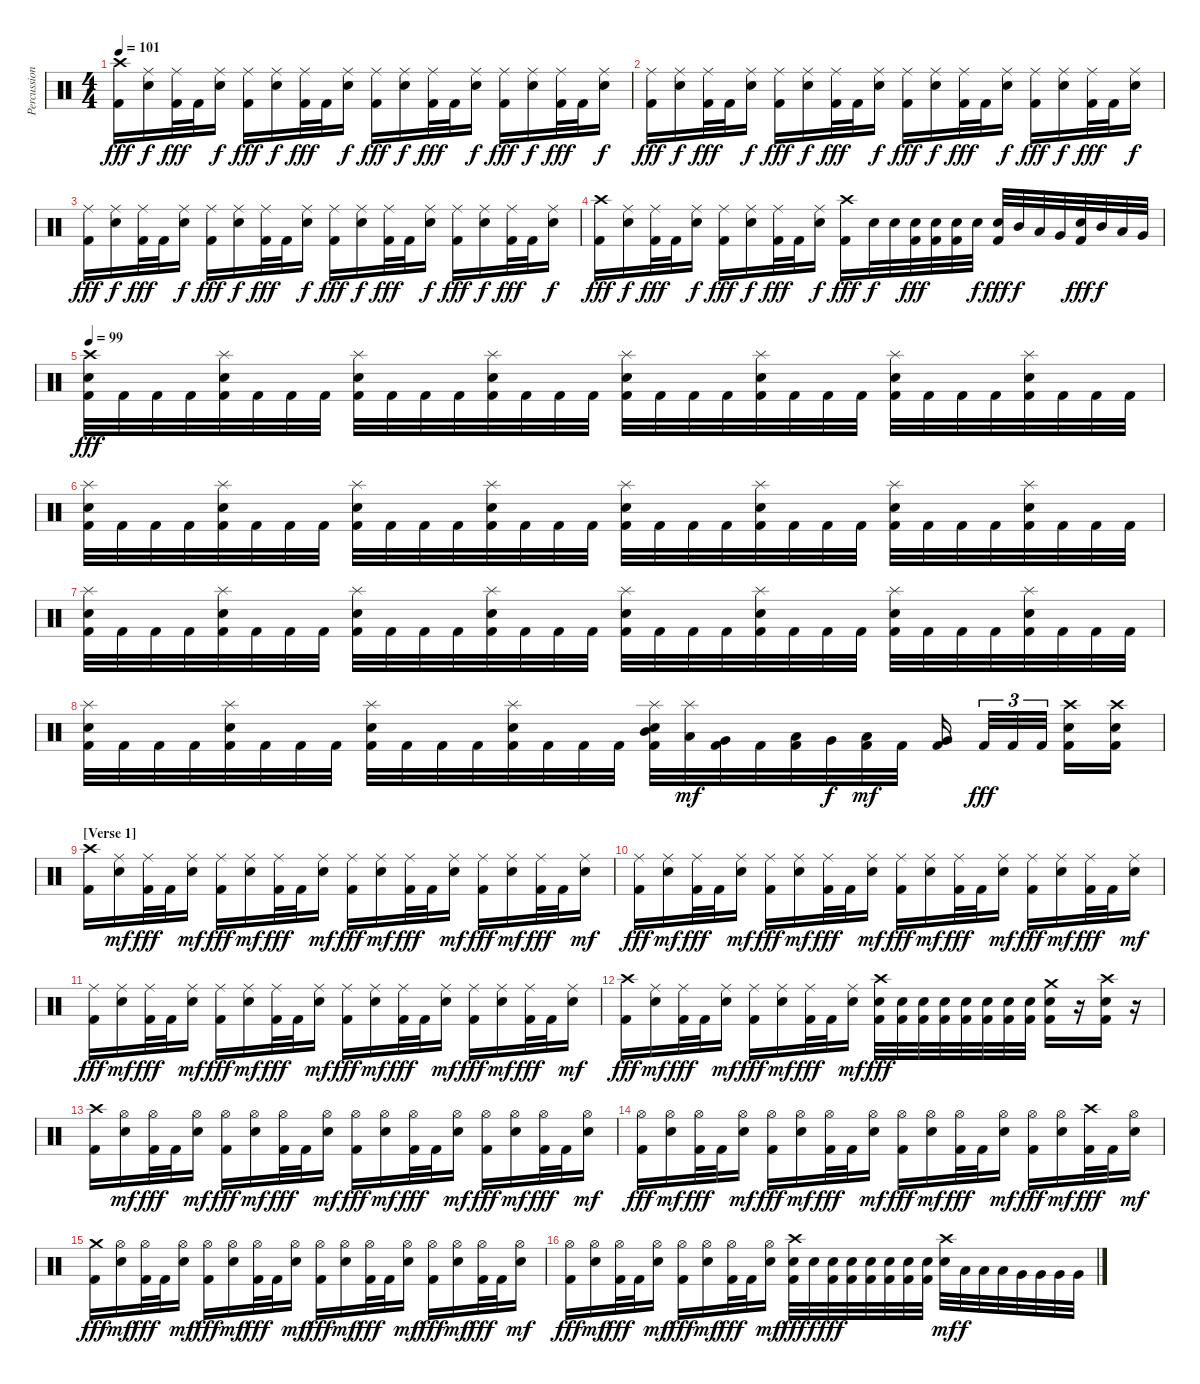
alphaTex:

\track ("Percussion" "Percussion") {instrument percussion}
\staff {score}
\articulation defaults
\ts (4 4)
\tempo 101
\clef neutral
\ks c
("Crash high (hit)" "Kick (hit) 2").16{dy fff} ("Ride (middle)" "Snare (hit) 2").16{dy f} ("Ride (middle)" "Kick (hit) 2").32{dy fff} "Kick (hit) 2".32 ("Ride (middle)" "Snare (hit) 2").16{dy f} ("Ride (middle)" "Kick (hit) 2").16{dy fff} ("Ride (middle)" "Snare (hit) 2").16{dy f} ("Ride (middle)" "Kick (hit) 2").32{dy fff} "Kick (hit) 2".32 ("Ride (middle)" "Snare (hit) 2").16{dy f} ("Ride (middle)" "Kick (hit) 2").16{dy fff} ("Ride (middle)" "Snare (hit) 2").16{dy f} ("Ride (middle)" "Kick (hit) 2").32{dy fff} "Kick (hit) 2".32 ("Ride (middle)" "Snare (hit) 2").16{dy f} ("Ride (middle)" "Kick (hit) 2").16{dy fff} ("Ride (middle)" "Snare (hit) 2").16{dy f} ("Ride (middle)" "Kick (hit) 2").32{dy fff} "Kick (hit) 2".32 ("Ride (middle)" "Snare (hit) 2").16{dy f} |
("Ride (middle)" "Kick (hit) 2").16{dy fff} ("Ride (middle)" "Snare (hit) 2").16{dy f} ("Ride (middle)" "Kick (hit) 2").32{dy fff} "Kick (hit) 2".32 ("Ride (middle)" "Snare (hit) 2").16{dy f} ("Ride (middle)" "Kick (hit) 2").16{dy fff} ("Ride (middle)" "Snare (hit) 2").16{dy f} ("Ride (middle)" "Kick (hit) 2").32{dy fff} "Kick (hit) 2".32 ("Ride (middle)" "Snare (hit) 2").16{dy f} ("Ride (middle)" "Kick (hit) 2").16{dy fff} ("Ride (middle)" "Snare (hit) 2").16{dy f} ("Ride (middle)" "Kick (hit) 2").32{dy fff} "Kick (hit) 2".32 ("Ride (middle)" "Snare (hit) 2").16{dy f} ("Ride (middle)" "Kick (hit) 2").16{dy fff} ("Ride (middle)" "Snare (hit) 2").16{dy f} ("Ride (middle)" "Kick (hit) 2").32{dy fff} "Kick (hit) 2".32 ("Ride (middle)" "Snare (hit) 2").16{dy f} |
("Ride (middle)" "Kick (hit) 2").16{dy fff} ("Ride (middle)" "Snare (hit) 2").16{dy f} ("Ride (middle)" "Kick (hit) 2").32{dy fff} "Kick (hit) 2".32 ("Ride (middle)" "Snare (hit) 2").16{dy f} ("Ride (middle)" "Kick (hit) 2").16{dy fff} ("Ride (middle)" "Snare (hit) 2").16{dy f} ("Ride (middle)" "Kick (hit) 2").32{dy fff} "Kick (hit) 2".32 ("Ride (middle)" "Snare (hit) 2").16{dy f} ("Ride (middle)" "Kick (hit) 2").16{dy fff} ("Ride (middle)" "Snare (hit) 2").16{dy f} ("Ride (middle)" "Kick (hit) 2").32{dy fff} "Kick (hit) 2".32 ("Ride (middle)" "Snare (hit) 2").16{dy f} ("Ride (middle)" "Kick (hit) 2").16{dy fff} ("Ride (middle)" "Snare (hit) 2").16{dy f} ("Ride (middle)" "Kick (hit) 2").32{dy fff} "Kick (hit) 2".32 ("Ride (middle)" "Snare (hit) 2").16{dy f} |
("Crash high (hit)" "Kick (hit) 2").16{dy fff} ("Ride (middle)" "Snare (hit) 2").16{dy f} ("Ride (middle)" "Kick (hit) 2").32{dy fff} "Kick (hit) 2".32 ("Ride (middle)" "Snare (hit) 2").16{dy f} ("Ride (middle)" "Kick (hit) 2").16{dy fff} ("Ride (middle)" "Snare (hit) 2").16{dy f} ("Ride (middle)" "Kick (hit) 2").32{dy fff} "Kick (hit) 2".32 ("Ride (middle)" "Snare (hit) 2").16{dy f} ("Crash high (hit)" "Kick (hit) 2").16{dy fff} "Snare (hit) 2".32{dy f} "Snare (hit) 2".32 ("Snare (hit) 2" "Kick (hit) 2").32{dy fff} ("Snare (hit) 2" "Kick (hit) 2").32 ("Snare (hit) 2" "Kick (hit) 2").32 "Snare (hit) 2".32{dy f} ("Snare (hit) 2" "Kick (hit) 2").32{dy fff} "Mid Tom (hit)".32{dy f} "Low Tom (hit)".32 "Very Low Tom (hit)".32 ("Snare (hit) 2" "Kick (hit) 2").32{dy fff} "Mid Tom (hit)".32{dy f} "Low Tom (hit)".32 "Very Low Tom (hit)".32 |
\section ("" "")
\tempo 99
("Crash high (hit)" "Snare (hit) 2" "Kick (hit) 2").32{dy fff} "Kick (hit) 2".32 "Kick (hit) 2".32 "Kick (hit) 2".32 ("Splash (hit)" "Snare (hit) 2" "Kick (hit) 2").32 "Kick (hit) 2".32 "Kick (hit) 2".32 "Kick (hit) 2".32 ("Splash (hit)" "Snare (hit) 2" "Kick (hit) 2").32 "Kick (hit) 2".32 "Kick (hit) 2".32 "Kick (hit) 2".32 ("Splash (hit)" "Snare (hit) 2" "Kick (hit) 2").32 "Kick (hit) 2".32 "Kick (hit) 2".32 "Kick (hit) 2".32 ("Splash (hit)" "Snare (hit) 2" "Kick (hit) 2").32 "Kick (hit) 2".32 "Kick (hit) 2".32 "Kick (hit) 2".32 ("Splash (hit)" "Snare (hit) 2" "Kick (hit) 2").32 "Kick (hit) 2".32 "Kick (hit) 2".32 "Kick (hit) 2".32 ("Splash (hit)" "Snare (hit) 2" "Kick (hit) 2").32 "Kick (hit) 2".32 "Kick (hit) 2".32 "Kick (hit) 2".32 ("Splash (hit)" "Snare (hit) 2" "Kick (hit) 2").32 "Kick (hit) 2".32 "Kick (hit) 2".32 "Kick (hit) 2".32 |
("Splash (hit)" "Snare (hit) 2" "Kick (hit) 2").32 "Kick (hit) 2".32 "Kick (hit) 2".32 "Kick (hit) 2".32 ("Splash (hit)" "Snare (hit) 2" "Kick (hit) 2").32 "Kick (hit) 2".32 "Kick (hit) 2".32 "Kick (hit) 2".32 ("Splash (hit)" "Snare (hit) 2" "Kick (hit) 2").32 "Kick (hit) 2".32 "Kick (hit) 2".32 "Kick (hit) 2".32 ("Splash (hit)" "Snare (hit) 2" "Kick (hit) 2").32 "Kick (hit) 2".32 "Kick (hit) 2".32 "Kick (hit) 2".32 ("Splash (hit)" "Snare (hit) 2" "Kick (hit) 2").32 "Kick (hit) 2".32 "Kick (hit) 2".32 "Kick (hit) 2".32 ("Splash (hit)" "Snare (hit) 2" "Kick (hit) 2").32 "Kick (hit) 2".32 "Kick (hit) 2".32 "Kick (hit) 2".32 ("Splash (hit)" "Snare (hit) 2" "Kick (hit) 2").32 "Kick (hit) 2".32 "Kick (hit) 2".32 "Kick (hit) 2".32 ("Splash (hit)" "Snare (hit) 2" "Kick (hit) 2").32 "Kick (hit) 2".32 "Kick (hit) 2".32 "Kick (hit) 2".32 |
("Splash (hit)" "Snare (hit) 2" "Kick (hit) 2").32 "Kick (hit) 2".32 "Kick (hit) 2".32 "Kick (hit) 2".32 ("Splash (hit)" "Snare (hit) 2" "Kick (hit) 2").32 "Kick (hit) 2".32 "Kick (hit) 2".32 "Kick (hit) 2".32 ("Splash (hit)" "Snare (hit) 2" "Kick (hit) 2").32 "Kick (hit) 2".32 "Kick (hit) 2".32 "Kick (hit) 2".32 ("Splash (hit)" "Snare (hit) 2" "Kick (hit) 2").32 "Kick (hit) 2".32 "Kick (hit) 2".32 "Kick (hit) 2".32 ("Splash (hit)" "Snare (hit) 2" "Kick (hit) 2").32 "Kick (hit) 2".32 "Kick (hit) 2".32 "Kick (hit) 2".32 ("Splash (hit)" "Snare (hit) 2" "Kick (hit) 2").32 "Kick (hit) 2".32 "Kick (hit) 2".32 "Kick (hit) 2".32 ("Splash (hit)" "Snare (hit) 2" "Kick (hit) 2").32 "Kick (hit) 2".32 "Kick (hit) 2".32 "Kick (hit) 2".32 ("Splash (hit)" "Snare (hit) 2" "Kick (hit) 2").32 "Kick (hit) 2".32 "Kick (hit) 2".32 "Kick (hit) 2".32 |
("Splash (hit)" "Snare (hit) 2" "Kick (hit) 2").32 "Kick (hit) 2".32 "Kick (hit) 2".32 "Kick (hit) 2".32 ("Splash (hit)" "Snare (hit) 2" "Kick (hit) 2").32 "Kick (hit) 2".32 "Kick (hit) 2".32 "Kick (hit) 2".32 ("Splash (hit)" "Snare (hit) 2" "Kick (hit) 2").32 "Kick (hit) 2".32 "Kick (hit) 2".32 "Kick (hit) 2".32 ("Splash (hit)" "Snare (hit) 2" "Kick (hit) 2").32 "Kick (hit) 2".32 "Kick (hit) 2".32 "Kick (hit) 2".32 ("Splash (hit)" "Mid Tom (hit)" "Snare (hit) 2" "Kick (hit) 2").32 ("Splash (hit)" "Low Tom (hit)").32{dy mf} ("Very Low Tom (hit)" "Kick (hit) 2").32 "Kick (hit) 2".32 ("Low Tom (hit)" "Kick (hit) 2").32 "Very Low Tom (hit)".32{dy f} ("Low Floor Tom (hit)" "Kick (hit) 2").32{dy mf} "Kick (hit) 2".32 ("Very Low Tom (hit)" "Kick (hit) 2").16 "Kick (hit) 2".32{tu (3 2) dy fff} "Kick (hit) 2".32{tu (3 2)} "Kick (hit) 2".32{tu (3 2)} ("Crash high (hit)" "Snare (hit) 2" "Kick (hit) 2").16 ("Crash high (hit)" "Snare (hit) 2" "Kick (hit) 2").16 |
\section ("" "[Verse 1]")
("Crash high (hit)" "Kick (hit) 2").16 ("Ride (middle)" "Snare (hit) 2").16{dy mf} ("Ride (middle)" "Kick (hit) 2").32{dy fff} "Kick (hit) 2".32 ("Ride (middle)" "Snare (hit) 2").16{dy mf} ("Ride (middle)" "Kick (hit) 2").16{dy fff} ("Ride (middle)" "Snare (hit) 2").16{dy mf} ("Ride (middle)" "Kick (hit) 2").32{dy fff} "Kick (hit) 2".32 ("Ride (middle)" "Snare (hit) 2").16{dy mf} ("Ride (middle)" "Kick (hit) 2").16{dy fff} ("Ride (middle)" "Snare (hit) 2").16{dy mf} ("Ride (middle)" "Kick (hit) 2").32{dy fff} "Kick (hit) 2".32 ("Ride (middle)" "Snare (hit) 2").16{dy mf} ("Ride (middle)" "Kick (hit) 2").16{dy fff} ("Ride (middle)" "Snare (hit) 2").16{dy mf} ("Ride (middle)" "Kick (hit) 2").32{dy fff} "Kick (hit) 2".32 ("Ride (middle)" "Snare (hit) 2").16{dy mf} |
("Ride (middle)" "Kick (hit) 2").16{dy fff} ("Ride (middle)" "Snare (hit) 2").16{dy mf} ("Ride (middle)" "Kick (hit) 2").32{dy fff} "Kick (hit) 2".32 ("Ride (middle)" "Snare (hit) 2").16{dy mf} ("Ride (middle)" "Kick (hit) 2").16{dy fff} ("Ride (middle)" "Snare (hit) 2").16{dy mf} ("Ride (middle)" "Kick (hit) 2").32{dy fff} "Kick (hit) 2".32 ("Ride (middle)" "Snare (hit) 2").16{dy mf} ("Ride (middle)" "Kick (hit) 2").16{dy fff} ("Ride (middle)" "Snare (hit) 2").16{dy mf} ("Ride (middle)" "Kick (hit) 2").32{dy fff} "Kick (hit) 2".32 ("Ride (middle)" "Snare (hit) 2").16{dy mf} ("Ride (middle)" "Kick (hit) 2").16{dy fff} ("Ride (middle)" "Snare (hit) 2").16{dy mf} ("Ride (middle)" "Kick (hit) 2").32{dy fff} "Kick (hit) 2".32 ("Ride (middle)" "Snare (hit) 2").16{dy mf} |
("Ride (middle)" "Kick (hit) 2").16{dy fff} ("Ride (middle)" "Snare (hit) 2").16{dy mf} ("Ride (middle)" "Kick (hit) 2").32{dy fff} "Kick (hit) 2".32 ("Ride (middle)" "Snare (hit) 2").16{dy mf} ("Ride (middle)" "Kick (hit) 2").16{dy fff} ("Ride (middle)" "Snare (hit) 2").16{dy mf} ("Ride (middle)" "Kick (hit) 2").32{dy fff} "Kick (hit) 2".32 ("Ride (middle)" "Snare (hit) 2").16{dy mf} ("Ride (middle)" "Kick (hit) 2").16{dy fff} ("Ride (middle)" "Snare (hit) 2").16{dy mf} ("Ride (middle)" "Kick (hit) 2").32{dy fff} "Kick (hit) 2".32 ("Ride (middle)" "Snare (hit) 2").16{dy mf} ("Ride (middle)" "Kick (hit) 2").16{dy fff} ("Ride (middle)" "Snare (hit) 2").16{dy mf} ("Ride (middle)" "Kick (hit) 2").32{dy fff} "Kick (hit) 2".32 ("Ride (middle)" "Snare (hit) 2").16{dy mf} |
("Crash high (hit)" "Kick (hit) 2").16{dy fff} ("Ride (middle)" "Snare (hit) 2").16{dy mf} ("Ride (middle)" "Kick (hit) 2").32{dy fff} "Kick (hit) 2".32 ("Ride (middle)" "Snare (hit) 2").16{dy mf} ("Ride (middle)" "Kick (hit) 2").16{dy fff} ("Ride (middle)" "Snare (hit) 2").16{dy mf} ("Ride (middle)" "Kick (hit) 2").32{dy fff} "Kick (hit) 2".32 ("Ride (middle)" "Snare (hit) 2").16{dy mf} ("Crash high (hit)" "Snare (hit) 2" "Kick (hit) 2").32{dy fff} ("Snare (hit) 2" "Kick (hit) 2").32 ("Snare (hit) 2" "Kick (hit) 2").32 ("Snare (hit) 2" "Kick (hit) 2").32 ("Snare (hit) 2" "Kick (hit) 2").32 ("Snare (hit) 2" "Kick (hit) 2").32 ("Snare (hit) 2" "Kick (hit) 2").32 ("Snare (hit) 2" "Kick (hit) 2").32 ("Crash medium (hit)" "Snare (hit) 2" "Kick (hit) 2").16 r.16 ("Crash high (hit)" "Snare (hit) 2" "Kick (hit) 2").16 r.16 |
("Crash high (hit)" "Kick (hit) 2").16 ("Hi-Hat (open)" "Snare (hit) 2").16{dy mf} ("Hi-Hat (open)" "Kick (hit) 2").32{dy fff} "Kick (hit) 2".32 ("Hi-Hat (open)" "Snare (hit) 2").16{dy mf} ("Hi-Hat (open)" "Kick (hit) 2").16{dy fff} ("Hi-Hat (open)" "Snare (hit) 2").16{dy mf} ("Hi-Hat (open)" "Kick (hit) 2").32{dy fff} "Kick (hit) 2".32 ("Hi-Hat (open)" "Snare (hit) 2").16{dy mf} ("Hi-Hat (open)" "Kick (hit) 2").16{dy fff} ("Hi-Hat (open)" "Snare (hit) 2").16{dy mf} ("Hi-Hat (open)" "Kick (hit) 2").32{dy fff} "Kick (hit) 2".32 ("Hi-Hat (open)" "Snare (hit) 2").16{dy mf} ("Hi-Hat (open)" "Kick (hit) 2").16{dy fff} ("Hi-Hat (open)" "Snare (hit) 2").16{dy mf} ("Hi-Hat (open)" "Kick (hit) 2").32{dy fff} "Kick (hit) 2".32 ("Hi-Hat (open)" "Snare (hit) 2").16{dy mf} |
("Hi-Hat (open)" "Kick (hit) 2").16{dy fff} ("Hi-Hat (open)" "Snare (hit) 2").16{dy mf} ("Hi-Hat (open)" "Kick (hit) 2").32{dy fff} "Kick (hit) 2".32 ("Hi-Hat (open)" "Snare (hit) 2").16{dy mf} ("Hi-Hat (open)" "Kick (hit) 2").16{dy fff} ("Hi-Hat (open)" "Snare (hit) 2").16{dy mf} ("Hi-Hat (open)" "Kick (hit) 2").32{dy fff} "Kick (hit) 2".32 ("Hi-Hat (open)" "Snare (hit) 2").16{dy mf} ("Hi-Hat (open)" "Kick (hit) 2").16{dy fff} ("Hi-Hat (open)" "Snare (hit) 2").16{dy mf} ("Hi-Hat (open)" "Kick (hit) 2").32{dy fff} "Kick (hit) 2".32 ("Hi-Hat (open)" "Snare (hit) 2").16{dy mf} ("Hi-Hat (open)" "Kick (hit) 2").16{dy fff} ("Hi-Hat (open)" "Snare (hit) 2").16{dy mf} ("Crash high (hit)" "Kick (hit) 2").32{dy fff} "Kick (hit) 2".32 ("Hi-Hat (open)" "Snare (hit) 2").16{dy mf} |
("Crash medium (hit)" "Kick (hit) 2").16{dy fff} ("Hi-Hat (open)" "Snare (hit) 2").16{dy mf} ("Hi-Hat (open)" "Kick (hit) 2").32{dy fff} "Kick (hit) 2".32 ("Hi-Hat (open)" "Snare (hit) 2").16{dy mf} ("Hi-Hat (open)" "Kick (hit) 2").16{dy fff} ("Hi-Hat (open)" "Snare (hit) 2").16{dy mf} ("Hi-Hat (open)" "Kick (hit) 2").32{dy fff} "Kick (hit) 2".32 ("Hi-Hat (open)" "Snare (hit) 2").16{dy mf} ("Hi-Hat (open)" "Kick (hit) 2").16{dy fff} ("Hi-Hat (open)" "Snare (hit) 2").16{dy mf} ("Hi-Hat (open)" "Kick (hit) 2").32{dy fff} "Kick (hit) 2".32 ("Hi-Hat (open)" "Snare (hit) 2").16{dy mf} ("Hi-Hat (open)" "Kick (hit) 2").16{dy fff} ("Hi-Hat (open)" "Snare (hit) 2").16{dy mf} ("Hi-Hat (open)" "Kick (hit) 2").32{dy fff} "Kick (hit) 2".32 ("Hi-Hat (open)" "Snare (hit) 2").16{dy mf} |
("Hi-Hat (open)" "Kick (hit) 2").16{dy fff} ("Hi-Hat (open)" "Snare (hit) 2").16{dy mf} ("Hi-Hat (open)" "Kick (hit) 2").32{dy fff} "Kick (hit) 2".32 ("Hi-Hat (open)" "Snare (hit) 2").16{dy mf} ("Hi-Hat (open)" "Kick (hit) 2").16{dy fff} ("Hi-Hat (open)" "Snare (hit) 2").16{dy mf} ("Hi-Hat (open)" "Kick (hit) 2").32{dy fff} "Kick (hit) 2".32 ("Hi-Hat (open)" "Snare (hit) 2").16{dy mf} ("Crash high (hit)" "Snare (hit) 2" "Kick (hit) 2").32{dy fff} "Snare (hit) 2".32{dy f} ("Snare (hit) 2" "Kick (hit) 2").32{dy fff} ("Snare (hit) 2" "Kick (hit) 2").32 ("Snare (hit) 2" "Kick (hit) 2").32 ("Snare (hit) 2" "Kick (hit) 2").32 ("Snare (hit) 2" "Kick (hit) 2").32 ("Snare (hit) 2" "Kick (hit) 2").32 ("Crash high (hit)" "Snare (hit) 2").32{dy mf} "Low Tom (hit)".32{dy f} "Low Tom (hit)".32 "Low Tom (hit)".32 "Very Low Tom (hit)".32 "Very Low Tom (hit)".32 "Very Low Tom (hit)".32 "Very Low Tom (hit)".32
